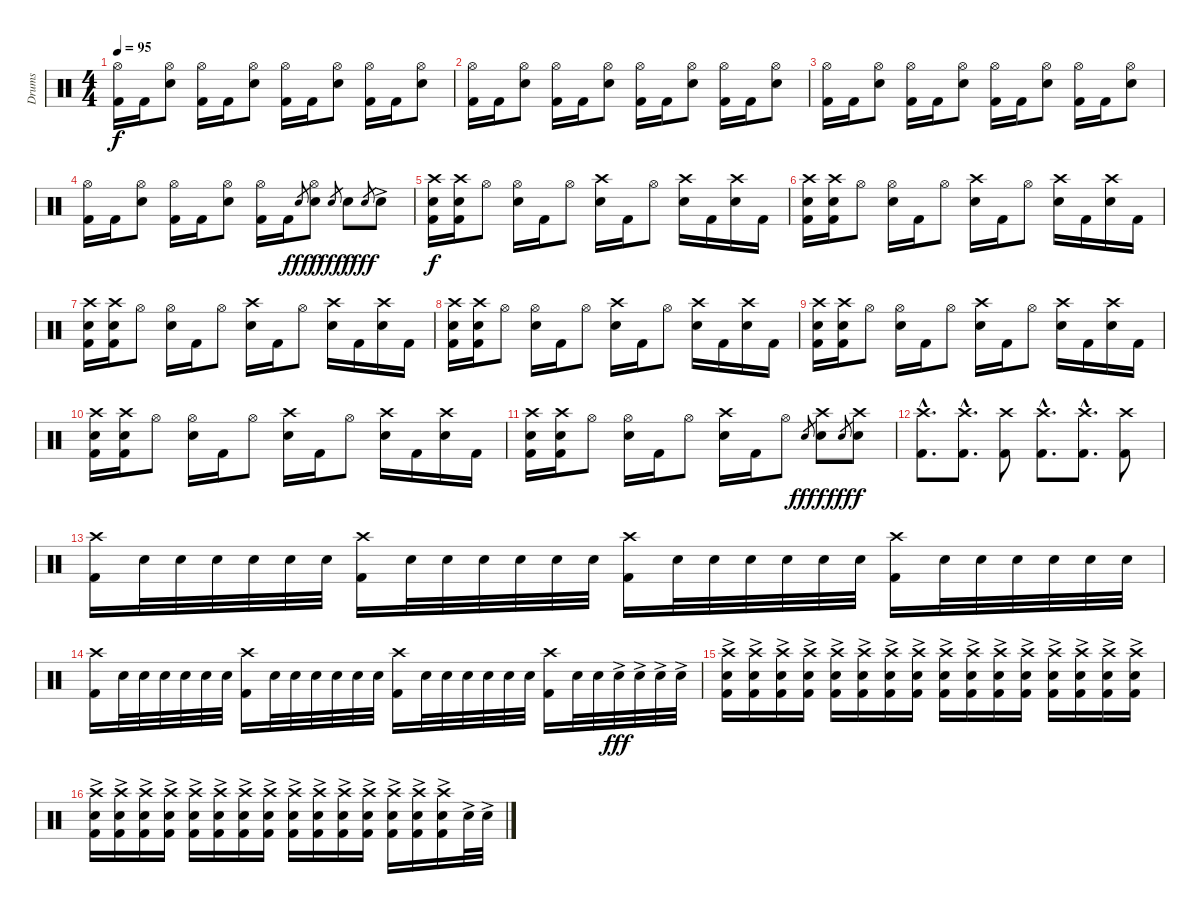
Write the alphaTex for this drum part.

\track ("Drums" "Drums") {instrument percussion}
\staff {score}
\articulation defaults
\ts (4 4)
\tempo 95
\clef neutral
\ks c
("Hi-Hat (open)" "Kick (hit) 2").16{dy f} "Kick (hit) 2".16 ("Hi-Hat (open)" "Electric Snare (hit)").8 ("Hi-Hat (open)" "Kick (hit) 2").16 "Kick (hit) 2".16 ("Hi-Hat (open)" "Electric Snare (hit)").8 ("Hi-Hat (open)" "Kick (hit) 2").16 "Kick (hit) 2".16 ("Hi-Hat (open)" "Electric Snare (hit)").8 ("Hi-Hat (open)" "Kick (hit) 2").16 "Kick (hit) 2".16 ("Hi-Hat (open)" "Electric Snare (hit)").8 |
("Hi-Hat (open)" "Kick (hit) 2").16 "Kick (hit) 2".16 ("Hi-Hat (open)" "Electric Snare (hit)").8 ("Hi-Hat (open)" "Kick (hit) 2").16 "Kick (hit) 2".16 ("Hi-Hat (open)" "Electric Snare (hit)").8 ("Hi-Hat (open)" "Kick (hit) 2").16 "Kick (hit) 2".16 ("Hi-Hat (open)" "Electric Snare (hit)").8 ("Hi-Hat (open)" "Kick (hit) 2").16 "Kick (hit) 2".16 ("Hi-Hat (open)" "Electric Snare (hit)").8 |
("Hi-Hat (open)" "Kick (hit) 2").16 "Kick (hit) 2".16 ("Hi-Hat (open)" "Electric Snare (hit)").8 ("Hi-Hat (open)" "Kick (hit) 2").16 "Kick (hit) 2".16 ("Hi-Hat (open)" "Electric Snare (hit)").8 ("Hi-Hat (open)" "Kick (hit) 2").16 "Kick (hit) 2".16 ("Hi-Hat (open)" "Electric Snare (hit)").8 ("Hi-Hat (open)" "Kick (hit) 2").16 "Kick (hit) 2".16 ("Hi-Hat (open)" "Electric Snare (hit)").8 |
("Hi-Hat (open)" "Kick (hit) 2").16 "Kick (hit) 2".16 ("Hi-Hat (open)" "Electric Snare (hit)").8 ("Hi-Hat (open)" "Kick (hit) 2").16 "Kick (hit) 2".16 ("Hi-Hat (open)" "Electric Snare (hit)").8 ("Hi-Hat (open)" "Kick (hit) 2").16 "Kick (hit) 2".16 "Electric Snare (hit)".8{gr dy fff} ("Hi-Hat (open)" "Electric Snare (hit)").8{dy f} "Electric Snare (hit)".8{gr dy fff} "Electric Snare (hit)".8{dy f} "Electric Snare (hit)".8{gr dy fff} "Electric Snare (hit)"{ac}.8 |
("Crash high (hit)" "Electric Snare (hit)" "Kick (hit) 2").16{dy f} ("Crash high (hit)" "Electric Snare (hit)" "Kick (hit) 2").16 "Hi-Hat (open)".8 ("Hi-Hat (open)" "Electric Snare (hit)").16 "Kick (hit) 2".16 "Hi-Hat (open)".8 ("Crash high (hit)" "Electric Snare (hit)").16 "Kick (hit) 2".16 "Hi-Hat (open)".8 ("Crash high (hit)" "Electric Snare (hit)").16 "Kick (hit) 2".16 ("Crash high (hit)" "Electric Snare (hit)").16 "Kick (hit) 2".16 |
("Crash high (hit)" "Electric Snare (hit)" "Kick (hit) 2").16 ("Crash high (hit)" "Electric Snare (hit)" "Kick (hit) 2").16 "Hi-Hat (open)".8 ("Hi-Hat (open)" "Electric Snare (hit)").16 "Kick (hit) 2".16 "Hi-Hat (open)".8 ("Crash high (hit)" "Electric Snare (hit)").16 "Kick (hit) 2".16 "Hi-Hat (open)".8 ("Crash high (hit)" "Electric Snare (hit)").16 "Kick (hit) 2".16 ("Crash high (hit)" "Electric Snare (hit)").16 "Kick (hit) 2".16 |
("Crash high (hit)" "Electric Snare (hit)" "Kick (hit) 2").16 ("Crash high (hit)" "Electric Snare (hit)" "Kick (hit) 2").16 "Hi-Hat (open)".8 ("Hi-Hat (open)" "Electric Snare (hit)").16 "Kick (hit) 2".16 "Hi-Hat (open)".8 ("Crash high (hit)" "Electric Snare (hit)").16 "Kick (hit) 2".16 "Hi-Hat (open)".8 ("Crash high (hit)" "Electric Snare (hit)").16 "Kick (hit) 2".16 ("Crash high (hit)" "Electric Snare (hit)").16 "Kick (hit) 2".16 |
("Crash high (hit)" "Electric Snare (hit)" "Kick (hit) 2").16 ("Crash high (hit)" "Electric Snare (hit)" "Kick (hit) 2").16 "Hi-Hat (open)".8 ("Hi-Hat (open)" "Electric Snare (hit)").16 "Kick (hit) 2".16 "Hi-Hat (open)".8 ("Crash high (hit)" "Electric Snare (hit)").16 "Kick (hit) 2".16 "Hi-Hat (open)".8 ("Crash high (hit)" "Electric Snare (hit)").16 "Kick (hit) 2".16 ("Crash high (hit)" "Electric Snare (hit)").16 "Kick (hit) 2".16 |
("Crash high (hit)" "Electric Snare (hit)" "Kick (hit) 2").16 ("Crash high (hit)" "Electric Snare (hit)" "Kick (hit) 2").16 "Hi-Hat (open)".8 ("Hi-Hat (open)" "Electric Snare (hit)").16 "Kick (hit) 2".16 "Hi-Hat (open)".8 ("Crash high (hit)" "Electric Snare (hit)").16 "Kick (hit) 2".16 "Hi-Hat (open)".8 ("Crash high (hit)" "Electric Snare (hit)").16 "Kick (hit) 2".16 ("Crash high (hit)" "Electric Snare (hit)").16 "Kick (hit) 2".16 |
("Crash high (hit)" "Electric Snare (hit)" "Kick (hit) 2").16 ("Crash high (hit)" "Electric Snare (hit)" "Kick (hit) 2").16 "Hi-Hat (open)".8 ("Hi-Hat (open)" "Electric Snare (hit)").16 "Kick (hit) 2".16 "Hi-Hat (open)".8 ("Crash high (hit)" "Electric Snare (hit)").16 "Kick (hit) 2".16 "Hi-Hat (open)".8 ("Crash high (hit)" "Electric Snare (hit)").16 "Kick (hit) 2".16 ("Crash high (hit)" "Electric Snare (hit)").16 "Kick (hit) 2".16 |
("Crash high (hit)" "Electric Snare (hit)" "Kick (hit) 2").16 ("Crash high (hit)" "Electric Snare (hit)" "Kick (hit) 2").16 "Hi-Hat (open)".8 ("Hi-Hat (open)" "Electric Snare (hit)").16 "Kick (hit) 2".16 "Hi-Hat (open)".8 ("Crash high (hit)" "Electric Snare (hit)").16 "Kick (hit) 2".16 "Hi-Hat (open)".8 "Electric Snare (hit)".8{gr dy fff} ("Crash high (hit)" "Electric Snare (hit)").8{dy f} "Electric Snare (hit)".8{gr dy fff} ("Crash high (hit)" "Electric Snare (hit)").8{dy f} |
("Crash high (hit)"{hac} "Kick (hit) 2"{hac}).8{d} ("Crash high (hit)"{hac} "Kick (hit) 2"{hac}).8{d} ("Crash high (hit)" "Kick (hit) 2").8 ("Crash high (hit)"{hac} "Kick (hit) 2"{hac}).8{d} ("Crash high (hit)"{hac} "Kick (hit) 2"{hac}).8{d} ("Crash high (hit)" "Kick (hit) 2").8 |
("Crash high (hit)" "Kick (hit) 2").16 "Electric Snare (hit)".32 "Electric Snare (hit)".32 "Electric Snare (hit)".32 "Electric Snare (hit)".32 "Electric Snare (hit)".32 "Electric Snare (hit)".32 ("Crash high (hit)" "Kick (hit) 2").16 "Electric Snare (hit)".32 "Electric Snare (hit)".32 "Electric Snare (hit)".32 "Electric Snare (hit)".32 "Electric Snare (hit)".32 "Electric Snare (hit)".32 ("Crash high (hit)" "Kick (hit) 2").16 "Electric Snare (hit)".32 "Electric Snare (hit)".32 "Electric Snare (hit)".32 "Electric Snare (hit)".32 "Electric Snare (hit)".32 "Electric Snare (hit)".32 ("Crash high (hit)" "Kick (hit) 2").16 "Electric Snare (hit)".32 "Electric Snare (hit)".32 "Electric Snare (hit)".32 "Electric Snare (hit)".32 "Electric Snare (hit)".32 "Electric Snare (hit)".32 |
("Crash high (hit)" "Kick (hit) 2").16 "Electric Snare (hit)".32 "Electric Snare (hit)".32 "Electric Snare (hit)".32 "Electric Snare (hit)".32 "Electric Snare (hit)".32 "Electric Snare (hit)".32 ("Crash high (hit)" "Kick (hit) 2").16 "Electric Snare (hit)".32 "Electric Snare (hit)".32 "Electric Snare (hit)".32 "Electric Snare (hit)".32 "Electric Snare (hit)".32 "Electric Snare (hit)".32 ("Crash high (hit)" "Kick (hit) 2").16 "Electric Snare (hit)".32 "Electric Snare (hit)".32 "Electric Snare (hit)".32 "Electric Snare (hit)".32 "Electric Snare (hit)".32 "Electric Snare (hit)".32 ("Crash high (hit)" "Kick (hit) 2").16 "Electric Snare (hit)".32 "Electric Snare (hit)".32 "Electric Snare (hit)"{ac}.32{dy fff} "Electric Snare (hit)"{ac}.32 "Electric Snare (hit)"{ac}.32 "Electric Snare (hit)"{ac}.32 |
("Crash high (hit)" "Electric Snare (hit)"{ac} "Kick (hit) 2").16 ("Crash high (hit)" "Electric Snare (hit)"{ac} "Kick (hit) 2").16 ("Crash high (hit)" "Electric Snare (hit)"{ac} "Kick (hit) 2").16 ("Crash high (hit)" "Electric Snare (hit)"{ac} "Kick (hit) 2").16 ("Crash high (hit)" "Electric Snare (hit)"{ac} "Kick (hit) 2").16 ("Crash high (hit)" "Electric Snare (hit)"{ac} "Kick (hit) 2").16 ("Crash high (hit)" "Electric Snare (hit)"{ac} "Kick (hit) 2").16 ("Crash high (hit)" "Electric Snare (hit)"{ac} "Kick (hit) 2").16 ("Crash high (hit)" "Electric Snare (hit)"{ac} "Kick (hit) 2").16 ("Crash high (hit)" "Electric Snare (hit)"{ac} "Kick (hit) 2").16 ("Crash high (hit)" "Electric Snare (hit)"{ac} "Kick (hit) 2").16 ("Crash high (hit)" "Electric Snare (hit)"{ac} "Kick (hit) 2").16 ("Crash high (hit)" "Electric Snare (hit)"{ac} "Kick (hit) 2").16 ("Crash high (hit)" "Electric Snare (hit)"{ac} "Kick (hit) 2").16 ("Crash high (hit)" "Electric Snare (hit)"{ac} "Kick (hit) 2").16 ("Crash high (hit)" "Electric Snare (hit)"{ac} "Kick (hit) 2").16 |
("Crash high (hit)" "Electric Snare (hit)"{ac} "Kick (hit) 2").16 ("Crash high (hit)" "Electric Snare (hit)"{ac} "Kick (hit) 2").16 ("Crash high (hit)" "Electric Snare (hit)"{ac} "Kick (hit) 2").16 ("Crash high (hit)" "Electric Snare (hit)"{ac} "Kick (hit) 2").16 ("Crash high (hit)" "Electric Snare (hit)"{ac} "Kick (hit) 2").16 ("Crash high (hit)" "Electric Snare (hit)"{ac} "Kick (hit) 2").16 ("Crash high (hit)" "Electric Snare (hit)"{ac} "Kick (hit) 2").16 ("Crash high (hit)" "Electric Snare (hit)"{ac} "Kick (hit) 2").16 ("Crash high (hit)" "Electric Snare (hit)"{ac} "Kick (hit) 2").16 ("Crash high (hit)" "Electric Snare (hit)"{ac} "Kick (hit) 2").16 ("Crash high (hit)" "Electric Snare (hit)"{ac} "Kick (hit) 2").16 ("Crash high (hit)" "Electric Snare (hit)"{ac} "Kick (hit) 2").16 ("Crash high (hit)" "Electric Snare (hit)"{ac} "Kick (hit) 2").16 ("Crash high (hit)" "Electric Snare (hit)"{ac} "Kick (hit) 2").16 ("Crash high (hit)"{ac} "Electric Snare (hit)"{ac} "Kick (hit) 2"{ac}).16 "Electric Snare (hit)"{ac}.32 "Electric Snare (hit)"{ac}.32
